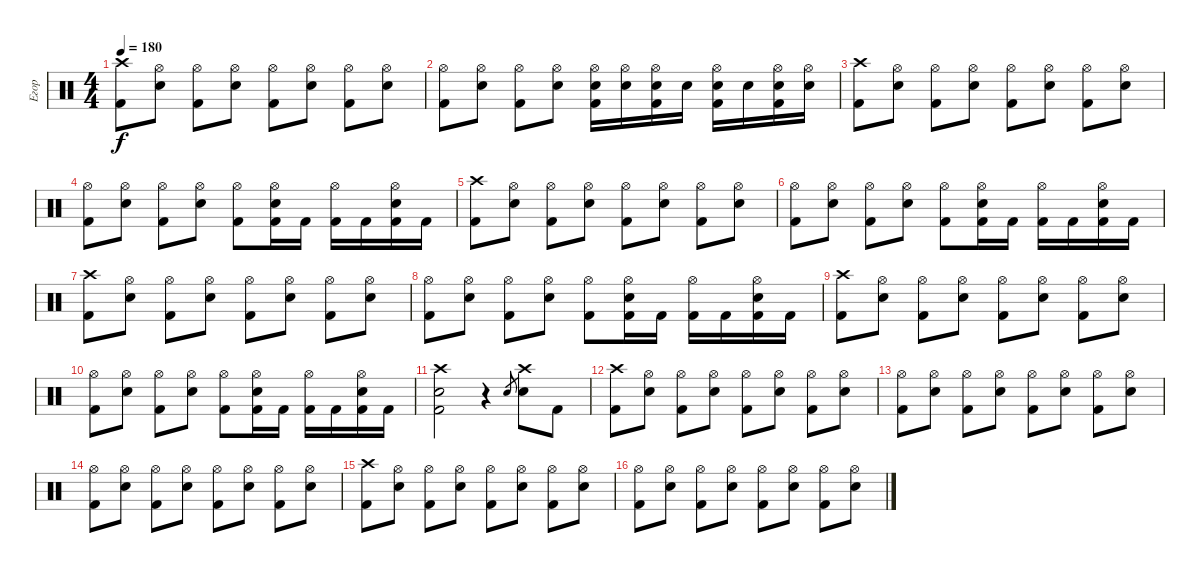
\track ("Егор" "Егор") {instrument percussion}
\staff {score}
\articulation defaults
\ts (4 4)
\tempo 180
\clef neutral
\ks c
("Crash high (hit)" "Kick (hit) 2").8{dy f} ("Hi-Hat (open)" "Electric Snare (hit)").8 ("Hi-Hat (open)" "Kick (hit) 2").8 ("Hi-Hat (open)" "Electric Snare (hit)").8 ("Hi-Hat (open)" "Kick (hit) 2").8 ("Hi-Hat (open)" "Electric Snare (hit)").8 ("Hi-Hat (open)" "Kick (hit) 2").8 ("Hi-Hat (open)" "Electric Snare (hit)").8 |
("Hi-Hat (open)" "Kick (hit) 2").8 ("Hi-Hat (open)" "Electric Snare (hit)").8 ("Hi-Hat (open)" "Kick (hit) 2").8 ("Hi-Hat (open)" "Electric Snare (hit)").8 ("Hi-Hat (open)" "Electric Snare (hit)" "Kick (hit) 2").16 ("Hi-Hat (open)" "Electric Snare (hit)").16 ("Hi-Hat (open)" "Electric Snare (hit)" "Kick (hit) 2").16 "Electric Snare (hit)".16 ("Hi-Hat (open)" "Electric Snare (hit)" "Kick (hit) 2").16 "Electric Snare (hit)".16 ("Hi-Hat (open)" "Electric Snare (hit)" "Kick (hit) 2").16 ("Hi-Hat (open)" "Electric Snare (hit)").16 |
("Crash high (hit)" "Kick (hit) 2").8 ("Hi-Hat (open)" "Electric Snare (hit)").8 ("Hi-Hat (open)" "Kick (hit) 2").8 ("Hi-Hat (open)" "Electric Snare (hit)").8 ("Hi-Hat (open)" "Kick (hit) 2").8 ("Hi-Hat (open)" "Electric Snare (hit)").8 ("Hi-Hat (open)" "Kick (hit) 2").8 ("Hi-Hat (open)" "Electric Snare (hit)").8 |
("Hi-Hat (open)" "Kick (hit) 2").8 ("Hi-Hat (open)" "Electric Snare (hit)").8 ("Hi-Hat (open)" "Kick (hit) 2").8 ("Hi-Hat (open)" "Electric Snare (hit)").8 ("Hi-Hat (open)" "Kick (hit) 2").8 ("Hi-Hat (open)" "Electric Snare (hit)" "Kick (hit) 2").16 "Kick (hit) 2".16 ("Hi-Hat (open)" "Kick (hit) 2").16 "Kick (hit) 2".16 ("Hi-Hat (open)" "Electric Snare (hit)" "Kick (hit) 2").16 "Kick (hit) 2".16 |
("Crash high (hit)" "Kick (hit) 2").8 ("Hi-Hat (open)" "Electric Snare (hit)").8 ("Hi-Hat (open)" "Kick (hit) 2").8 ("Hi-Hat (open)" "Electric Snare (hit)").8 ("Hi-Hat (open)" "Kick (hit) 2").8 ("Hi-Hat (open)" "Electric Snare (hit)").8 ("Hi-Hat (open)" "Kick (hit) 2").8 ("Hi-Hat (open)" "Electric Snare (hit)").8 |
("Hi-Hat (open)" "Kick (hit) 2").8 ("Hi-Hat (open)" "Electric Snare (hit)").8 ("Hi-Hat (open)" "Kick (hit) 2").8 ("Hi-Hat (open)" "Electric Snare (hit)").8 ("Hi-Hat (open)" "Kick (hit) 2").8 ("Hi-Hat (open)" "Electric Snare (hit)" "Kick (hit) 2").16 "Kick (hit) 2".16 ("Hi-Hat (open)" "Kick (hit) 2").16 "Kick (hit) 2".16 ("Hi-Hat (open)" "Electric Snare (hit)" "Kick (hit) 2").16 "Kick (hit) 2".16 |
("Crash high (hit)" "Kick (hit) 2").8 ("Hi-Hat (open)" "Electric Snare (hit)").8 ("Hi-Hat (open)" "Kick (hit) 2").8 ("Hi-Hat (open)" "Electric Snare (hit)").8 ("Hi-Hat (open)" "Kick (hit) 2").8 ("Hi-Hat (open)" "Electric Snare (hit)").8 ("Hi-Hat (open)" "Kick (hit) 2").8 ("Hi-Hat (open)" "Electric Snare (hit)").8 |
("Hi-Hat (open)" "Kick (hit) 2").8 ("Hi-Hat (open)" "Electric Snare (hit)").8 ("Hi-Hat (open)" "Kick (hit) 2").8 ("Hi-Hat (open)" "Electric Snare (hit)").8 ("Hi-Hat (open)" "Kick (hit) 2").8 ("Hi-Hat (open)" "Electric Snare (hit)" "Kick (hit) 2").16 "Kick (hit) 2".16 ("Hi-Hat (open)" "Kick (hit) 2").16 "Kick (hit) 2".16 ("Hi-Hat (open)" "Electric Snare (hit)" "Kick (hit) 2").16 "Kick (hit) 2".16 |
("Crash high (hit)" "Kick (hit) 2").8 ("Hi-Hat (open)" "Electric Snare (hit)").8 ("Hi-Hat (open)" "Kick (hit) 2").8 ("Hi-Hat (open)" "Electric Snare (hit)").8 ("Hi-Hat (open)" "Kick (hit) 2").8 ("Hi-Hat (open)" "Electric Snare (hit)").8 ("Hi-Hat (open)" "Kick (hit) 2").8 ("Hi-Hat (open)" "Electric Snare (hit)").8 |
("Hi-Hat (open)" "Kick (hit) 2").8 ("Hi-Hat (open)" "Electric Snare (hit)").8 ("Hi-Hat (open)" "Kick (hit) 2").8 ("Hi-Hat (open)" "Electric Snare (hit)").8 ("Hi-Hat (open)" "Kick (hit) 2").8 ("Hi-Hat (open)" "Electric Snare (hit)" "Kick (hit) 2").16 "Kick (hit) 2".16 ("Hi-Hat (open)" "Kick (hit) 2").16 "Kick (hit) 2".16 ("Hi-Hat (open)" "Electric Snare (hit)" "Kick (hit) 2").16 "Kick (hit) 2".16 |
("Crash high (hit)" "Electric Snare (hit)" "Kick (hit) 2").2 r.4 "Electric Snare (hit)".8{gr} ("Crash high (hit)" "Electric Snare (hit)").8 "Kick (hit) 2".8 |
("Crash high (hit)" "Kick (hit) 2").8 ("Hi-Hat (open)" "Electric Snare (hit)").8 ("Hi-Hat (open)" "Kick (hit) 2").8 ("Hi-Hat (open)" "Electric Snare (hit)").8 ("Hi-Hat (open)" "Kick (hit) 2").8 ("Hi-Hat (open)" "Electric Snare (hit)").8 ("Hi-Hat (open)" "Kick (hit) 2").8 ("Hi-Hat (open)" "Electric Snare (hit)").8 |
("Hi-Hat (open)" "Kick (hit) 2").8 ("Hi-Hat (open)" "Electric Snare (hit)").8 ("Hi-Hat (open)" "Kick (hit) 2").8 ("Hi-Hat (open)" "Electric Snare (hit)").8 ("Hi-Hat (open)" "Kick (hit) 2").8 ("Hi-Hat (open)" "Electric Snare (hit)").8 ("Hi-Hat (open)" "Kick (hit) 2").8 ("Hi-Hat (open)" "Electric Snare (hit)").8 |
("Hi-Hat (open)" "Kick (hit) 2").8 ("Hi-Hat (open)" "Electric Snare (hit)").8 ("Hi-Hat (open)" "Kick (hit) 2").8 ("Hi-Hat (open)" "Electric Snare (hit)").8 ("Hi-Hat (open)" "Kick (hit) 2").8 ("Hi-Hat (open)" "Electric Snare (hit)").8 ("Hi-Hat (open)" "Kick (hit) 2").8 ("Hi-Hat (open)" "Electric Snare (hit)").8 |
("Crash high (hit)" "Kick (hit) 2").8 ("Hi-Hat (open)" "Electric Snare (hit)").8 ("Hi-Hat (open)" "Kick (hit) 2").8 ("Hi-Hat (open)" "Electric Snare (hit)").8 ("Hi-Hat (open)" "Kick (hit) 2").8 ("Hi-Hat (open)" "Electric Snare (hit)").8 ("Hi-Hat (open)" "Kick (hit) 2").8 ("Hi-Hat (open)" "Electric Snare (hit)").8 |
("Hi-Hat (open)" "Kick (hit) 2").8 ("Hi-Hat (open)" "Electric Snare (hit)").8 ("Hi-Hat (open)" "Kick (hit) 2").8 ("Hi-Hat (open)" "Electric Snare (hit)").8 ("Hi-Hat (open)" "Kick (hit) 2").8 ("Hi-Hat (open)" "Electric Snare (hit)").8 ("Hi-Hat (open)" "Kick (hit) 2").8 ("Hi-Hat (open)" "Electric Snare (hit)").8
